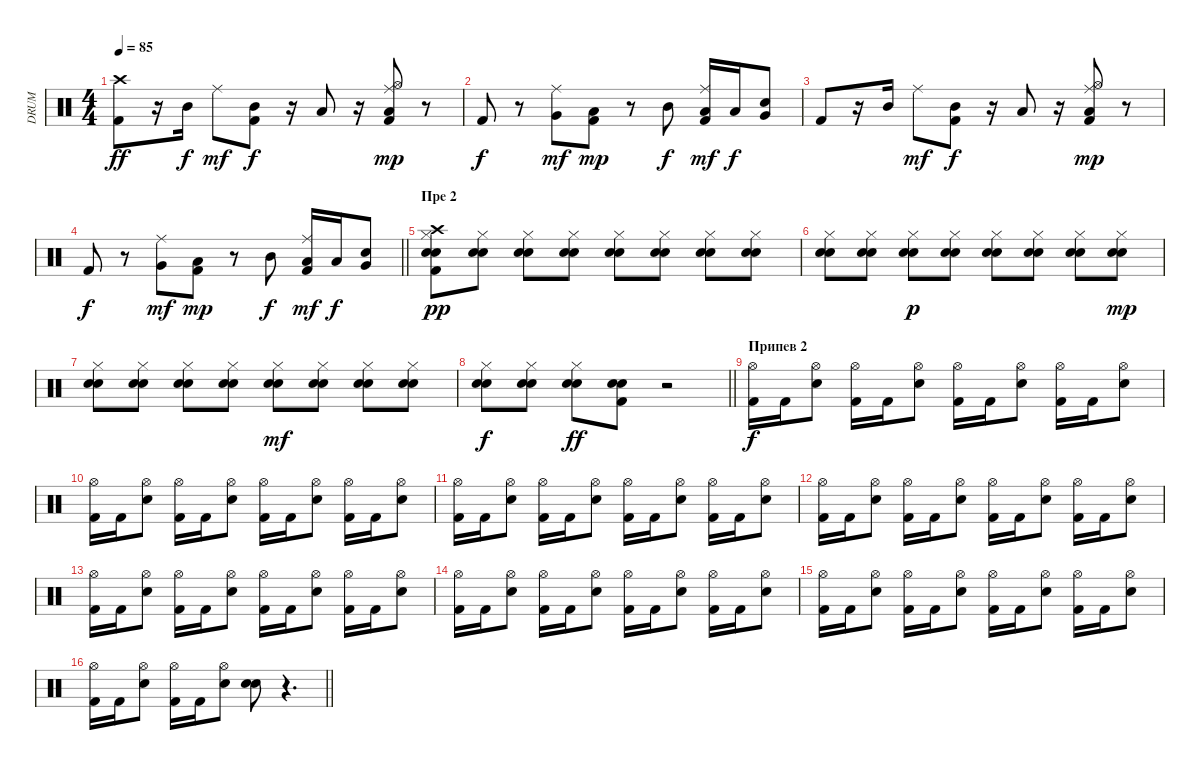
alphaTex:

\track ("DRUM" "DRUM") {instrument percussion}
\staff {score}
\articulation defaults
\ts (4 4)
\tempo 85
\clef neutral
\ks c
("Crash high (hit)" "Kick (hit) 2").8{dy ff} r.16 "Mid Tom (hit)".16{dy f} "Ride (middle)".8{dy mf} ("Mid Tom (hit)" "Kick (hit) 2").8{dy f} r.16 "Low Tom (hit)".8 r.16 ("Ride (middle)" "Hi-Hat (open)" "Kick (hit) 2" "Low Floor Tom (hit)").8{dy mp} r.8 |
"Kick (hit) 2".8{dy f} r.8 ("Ride (middle)" "Very Low Tom (hit)").8{dy mf} ("Low Floor Tom (hit)" "Kick (hit) 2").8{dy mp} r.8 "Mid Tom (hit)".8{dy f} ("Ride (middle)" "Low Tom (hit)" "Kick (hit) 2").16{dy mf} "Low Tom (hit)".16{dy f} ("Snare (hit) 2" "Very Low Tom (hit)").8 |
"Kick (hit) 2".8 r.16 "Mid Tom (hit)".16 "Ride (middle)".8{dy mf} ("Mid Tom (hit)" "Kick (hit) 2").8{dy f} r.16 "Low Tom (hit)".8 r.16 ("Ride (middle)" "Hi-Hat (open)" "Kick (hit) 2" "Low Floor Tom (hit)").8{dy mp} r.8 |
\barLineRight lightlight "Kick (hit) 2".8{dy f}
r.8 ("Ride (middle)" "Very Low Tom (hit)").8{dy mf} ("Low Floor Tom (hit)" "Kick (hit) 2").8{dy mp} r.8 "Mid Tom (hit)".8{dy f} ("Ride (middle)" "Low Tom (hit)" "Kick (hit) 2").16{dy mf} "Low Tom (hit)".16{dy f} ("Snare (hit) 2" "Very Low Tom (hit)").8 |
\section ("" "Пре 2")
("Crash high (hit)" "Kick (hit) 2" "Electric Snare (hit)" "Hi-Hat (closed)" "Snare (hit) 2").8{dy pp} ("Electric Snare (hit)" "Hi-Hat (closed)" "Snare (hit) 2").8 ("Electric Snare (hit)" "Hi-Hat (closed)" "Snare (hit) 2").8 ("Electric Snare (hit)" "Hi-Hat (closed)" "Snare (hit) 2").8 ("Electric Snare (hit)" "Hi-Hat (closed)" "Snare (hit) 2").8 ("Electric Snare (hit)" "Hi-Hat (closed)" "Snare (hit) 2").8 ("Electric Snare (hit)" "Hi-Hat (closed)" "Snare (hit) 2").8 ("Electric Snare (hit)" "Hi-Hat (closed)" "Snare (hit) 2").8 |
("Electric Snare (hit)" "Hi-Hat (closed)" "Snare (hit) 2").8 ("Electric Snare (hit)" "Hi-Hat (closed)" "Snare (hit) 2").8 ("Electric Snare (hit)" "Hi-Hat (closed)" "Snare (hit) 2").8{dy p} ("Electric Snare (hit)" "Hi-Hat (closed)" "Snare (hit) 2").8 ("Electric Snare (hit)" "Hi-Hat (closed)" "Snare (hit) 2").8 ("Electric Snare (hit)" "Hi-Hat (closed)" "Snare (hit) 2").8 ("Electric Snare (hit)" "Hi-Hat (closed)" "Snare (hit) 2").8 ("Electric Snare (hit)" "Hi-Hat (closed)" "Snare (hit) 2").8{dy mp} |
("Electric Snare (hit)" "Hi-Hat (closed)" "Snare (hit) 2").8 ("Electric Snare (hit)" "Hi-Hat (closed)" "Snare (hit) 2").8 ("Electric Snare (hit)" "Hi-Hat (closed)" "Snare (hit) 2").8 ("Electric Snare (hit)" "Hi-Hat (closed)" "Snare (hit) 2").8 ("Electric Snare (hit)" "Hi-Hat (closed)" "Snare (hit) 2").8{dy mf} ("Electric Snare (hit)" "Hi-Hat (closed)" "Snare (hit) 2").8 ("Electric Snare (hit)" "Hi-Hat (closed)" "Snare (hit) 2").8 ("Electric Snare (hit)" "Hi-Hat (closed)" "Snare (hit) 2").8 |
\barLineRight lightlight
("Electric Snare (hit)" "Hi-Hat (closed)" "Snare (hit) 2").8{dy f} ("Electric Snare (hit)" "Hi-Hat (closed)" "Snare (hit) 2").8 ("Electric Snare (hit)" "Hi-Hat (closed)" "Snare (hit) 2").8{dy ff} ("Electric Snare (hit)" "Kick (hit) 2" "Snare (hit) 2").8 r.2 |
\section ("" "Припев 2")
("Hi-Hat (open)" "Kick (hit) 2").16{dy f} "Kick (hit) 2".16 ("Hi-Hat (open)" "Snare (hit) 2").8 ("Hi-Hat (open)" "Kick (hit) 2").16 "Kick (hit) 2".16 ("Hi-Hat (open)" "Snare (hit) 2").8 ("Hi-Hat (open)" "Kick (hit) 2").16 "Kick (hit) 2".16 ("Hi-Hat (open)" "Snare (hit) 2").8 ("Hi-Hat (open)" "Kick (hit) 2").16 "Kick (hit) 2".16 ("Hi-Hat (open)" "Snare (hit) 2").8 |
("Hi-Hat (open)" "Kick (hit) 2").16 "Kick (hit) 2".16 ("Hi-Hat (open)" "Snare (hit) 2").8 ("Hi-Hat (open)" "Kick (hit) 2").16 "Kick (hit) 2".16 ("Hi-Hat (open)" "Snare (hit) 2").8 ("Hi-Hat (open)" "Kick (hit) 2").16 "Kick (hit) 2".16 ("Hi-Hat (open)" "Snare (hit) 2").8 ("Hi-Hat (open)" "Kick (hit) 2").16 "Kick (hit) 2".16 ("Hi-Hat (open)" "Snare (hit) 2").8 |
("Hi-Hat (open)" "Kick (hit) 2").16 "Kick (hit) 2".16 ("Hi-Hat (open)" "Snare (hit) 2").8 ("Hi-Hat (open)" "Kick (hit) 2").16 "Kick (hit) 2".16 ("Hi-Hat (open)" "Snare (hit) 2").8 ("Hi-Hat (open)" "Kick (hit) 2").16 "Kick (hit) 2".16 ("Hi-Hat (open)" "Snare (hit) 2").8 ("Hi-Hat (open)" "Kick (hit) 2").16 "Kick (hit) 2".16 ("Hi-Hat (open)" "Snare (hit) 2").8 |
("Hi-Hat (open)" "Kick (hit) 2").16 "Kick (hit) 2".16 ("Hi-Hat (open)" "Snare (hit) 2").8 ("Hi-Hat (open)" "Kick (hit) 2").16 "Kick (hit) 2".16 ("Hi-Hat (open)" "Snare (hit) 2").8 ("Hi-Hat (open)" "Kick (hit) 2").16 "Kick (hit) 2".16 ("Hi-Hat (open)" "Snare (hit) 2").8 ("Hi-Hat (open)" "Kick (hit) 2").16 "Kick (hit) 2".16 ("Hi-Hat (open)" "Snare (hit) 2").8 |
("Hi-Hat (open)" "Kick (hit) 2").16 "Kick (hit) 2".16 ("Hi-Hat (open)" "Snare (hit) 2").8 ("Hi-Hat (open)" "Kick (hit) 2").16 "Kick (hit) 2".16 ("Hi-Hat (open)" "Snare (hit) 2").8 ("Hi-Hat (open)" "Kick (hit) 2").16 "Kick (hit) 2".16 ("Hi-Hat (open)" "Snare (hit) 2").8 ("Hi-Hat (open)" "Kick (hit) 2").16 "Kick (hit) 2".16 ("Hi-Hat (open)" "Snare (hit) 2").8 |
("Hi-Hat (open)" "Kick (hit) 2").16 "Kick (hit) 2".16 ("Hi-Hat (open)" "Snare (hit) 2").8 ("Hi-Hat (open)" "Kick (hit) 2").16 "Kick (hit) 2".16 ("Hi-Hat (open)" "Snare (hit) 2").8 ("Hi-Hat (open)" "Kick (hit) 2").16 "Kick (hit) 2".16 ("Hi-Hat (open)" "Snare (hit) 2").8 ("Hi-Hat (open)" "Kick (hit) 2").16 "Kick (hit) 2".16 ("Hi-Hat (open)" "Snare (hit) 2").8 |
("Hi-Hat (open)" "Kick (hit) 2").16 "Kick (hit) 2".16 ("Hi-Hat (open)" "Snare (hit) 2").8 ("Hi-Hat (open)" "Kick (hit) 2").16 "Kick (hit) 2".16 ("Hi-Hat (open)" "Snare (hit) 2").8 ("Hi-Hat (open)" "Kick (hit) 2").16 "Kick (hit) 2".16 ("Hi-Hat (open)" "Snare (hit) 2").8 ("Hi-Hat (open)" "Kick (hit) 2").16 "Kick (hit) 2".16 ("Hi-Hat (open)" "Snare (hit) 2").8 |
\barLineRight lightlight
("Hi-Hat (open)" "Kick (hit) 2").16 "Kick (hit) 2".16 ("Hi-Hat (open)" "Snare (hit) 2").8 ("Hi-Hat (open)" "Kick (hit) 2").16 "Kick (hit) 2".16 ("Hi-Hat (open)" "Snare (hit) 2").8 ("Snare (hit) 2" "Snare (hit) 2").8 r.4{d}
